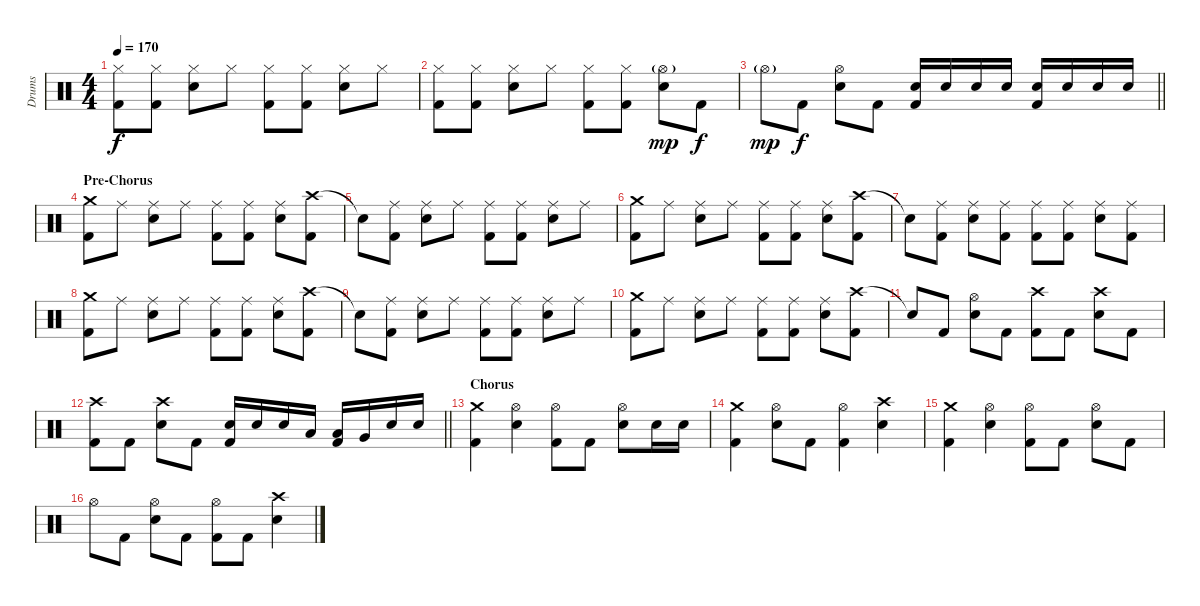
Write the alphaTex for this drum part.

\track ("Drums" "Drums") {instrument percussion}
\staff {score}
\articulation defaults
\ts (4 4)
\tempo 170
\clef neutral
\ks c
("Hi-Hat (closed)" "Kick (hit) 2").8{dy f} ("Hi-Hat (closed)" "Kick (hit) 2").8 ("Hi-Hat (closed)" "Electric Snare (hit)").8 "Hi-Hat (closed)".8 ("Hi-Hat (closed)" "Kick (hit) 2").8 ("Hi-Hat (closed)" "Kick (hit) 2").8 ("Hi-Hat (closed)" "Electric Snare (hit)").8 "Hi-Hat (closed)".8 |
("Hi-Hat (closed)" "Kick (hit) 2").8 ("Hi-Hat (closed)" "Kick (hit) 2").8 ("Hi-Hat (closed)" "Electric Snare (hit)").8 "Hi-Hat (closed)".8 ("Hi-Hat (closed)" "Kick (hit) 2").8 ("Hi-Hat (closed)" "Kick (hit) 2").8 ("Hi-Hat (open)"{g} "Electric Snare (hit)").8{dy mp} "Kick (hit) 2".8{dy f} |
\barLineRight lightlight "Hi-Hat (open)"{g}.8{dy mp} "Kick (hit) 2".8{dy f}
("Hi-Hat (open)" "Electric Snare (hit)").8 "Kick (hit) 2".8 ("Electric Snare (hit)" "Kick (hit) 2").16 "Electric Snare (hit)".16 "Electric Snare (hit)".16 "Electric Snare (hit)".16 ("Electric Snare (hit)" "Kick (hit) 2").16 "Electric Snare (hit)".16 "Electric Snare (hit)".16 "Electric Snare (hit)".16 |
\section ("" "Pre-Chorus")
("Crash medium (hit)" "Kick (hit) 2").8 "Ride (middle)".8 ("Ride (middle)" "Electric Snare (hit)").8 "Ride (middle)".8 ("Ride (middle)" "Kick (hit) 2").8 ("Ride (middle)" "Kick (hit) 2").8 ("Ride (middle)" "Electric Snare (hit)").8 ("Crash high (hit)" "Kick (hit) 2").8 |
"Snare (hit)"{t}.8 ("Ride (middle)" "Kick (hit) 2").8 ("Ride (middle)" "Electric Snare (hit)").8 "Ride (middle)".8 ("Ride (middle)" "Kick (hit) 2").8 ("Ride (middle)" "Kick (hit) 2").8 ("Ride (middle)" "Electric Snare (hit)").8 "Ride (middle)".8 |
("Crash medium (hit)" "Kick (hit) 2").8 "Ride (middle)".8 ("Ride (middle)" "Electric Snare (hit)").8 "Ride (middle)".8 ("Ride (middle)" "Kick (hit) 2").8 ("Ride (middle)" "Kick (hit) 2").8 ("Ride (middle)" "Electric Snare (hit)").8 ("Crash high (hit)" "Kick (hit) 2").8 |
"Snare (hit)"{t}.8 ("Ride (middle)" "Kick (hit) 2").8 ("Ride (middle)" "Electric Snare (hit)").8 ("Ride (middle)" "Kick (hit) 2").8 ("Ride (middle)" "Kick (hit) 2").8 ("Ride (middle)" "Kick (hit) 2").8 ("Ride (middle)" "Electric Snare (hit)").8 ("Ride (middle)" "Kick (hit) 2").8 |
("Crash medium (hit)" "Kick (hit) 2").8 "Ride (middle)".8 ("Ride (middle)" "Electric Snare (hit)").8 "Ride (middle)".8 ("Ride (middle)" "Kick (hit) 2").8 ("Ride (middle)" "Kick (hit) 2").8 ("Ride (middle)" "Electric Snare (hit)").8 ("Crash high (hit)" "Kick (hit) 2").8 |
"Snare (hit)"{t}.8 ("Ride (middle)" "Kick (hit) 2").8 ("Ride (middle)" "Electric Snare (hit)").8 "Ride (middle)".8 ("Ride (middle)" "Kick (hit) 2").8 ("Ride (middle)" "Kick (hit) 2").8 ("Ride (middle)" "Electric Snare (hit)").8 "Ride (middle)".8 |
("Crash medium (hit)" "Kick (hit) 2").8 "Ride (middle)".8 ("Ride (middle)" "Electric Snare (hit)").8 "Ride (middle)".8 ("Ride (middle)" "Kick (hit) 2").8 ("Ride (middle)" "Kick (hit) 2").8 ("Ride (middle)" "Electric Snare (hit)").8 ("Crash high (hit)" "Kick (hit) 2").8 |
"Snare (hit)"{t}.8 "Kick (hit) 2".8 ("Hi-Hat (open)" "Electric Snare (hit)").8 "Kick (hit) 2".8 ("Crash high (hit)" "Kick (hit) 2").8 "Kick (hit) 2".8 ("Crash high (hit)" "Electric Snare (hit)").8 "Kick (hit) 2".8 |
\barLineRight lightlight
("Crash high (hit)" "Kick (hit) 2").8 "Kick (hit) 2".8 ("Crash high (hit)" "Electric Snare (hit)").8 "Kick (hit) 2".8 ("Electric Snare (hit)" "Kick (hit) 2").16 "Electric Snare (hit)".16 "Electric Snare (hit)".16 "Low Tom (hit)".16 ("Low Tom (hit)" "Kick (hit) 2").16 "Very Low Tom (hit)".16 "Electric Snare (hit)".16 "Electric Snare (hit)".16 |
\section ("" "Chorus")
("Crash medium (hit)" "Kick (hit) 2").4 ("Hi-Hat (open)" "Electric Snare (hit)").4 ("Hi-Hat (open)" "Kick (hit) 2").8 "Kick (hit) 2".8 ("Hi-Hat (open)" "Electric Snare (hit)").8 "Electric Snare (hit)".16 "Electric Snare (hit)".16 |
("Crash medium (hit)" "Kick (hit) 2").4 ("Hi-Hat (open)" "Electric Snare (hit)").8 "Kick (hit) 2".8 ("Hi-Hat (open)" "Kick (hit) 2").4 ("Crash high (hit)" "Electric Snare (hit)").4 |
("Crash medium (hit)" "Kick (hit) 2").4 ("Hi-Hat (open)" "Electric Snare (hit)").4 ("Hi-Hat (open)" "Kick (hit) 2").8 "Kick (hit) 2".8 ("Hi-Hat (open)" "Electric Snare (hit)").8 "Kick (hit) 2".8 |
"Hi-Hat (open)".8 "Kick (hit) 2".8 ("Hi-Hat (open)" "Electric Snare (hit)").8 "Kick (hit) 2".8 ("Hi-Hat (open)" "Kick (hit) 2").8 "Kick (hit) 2".8 ("Crash high (hit)" "Electric Snare (hit)").4
